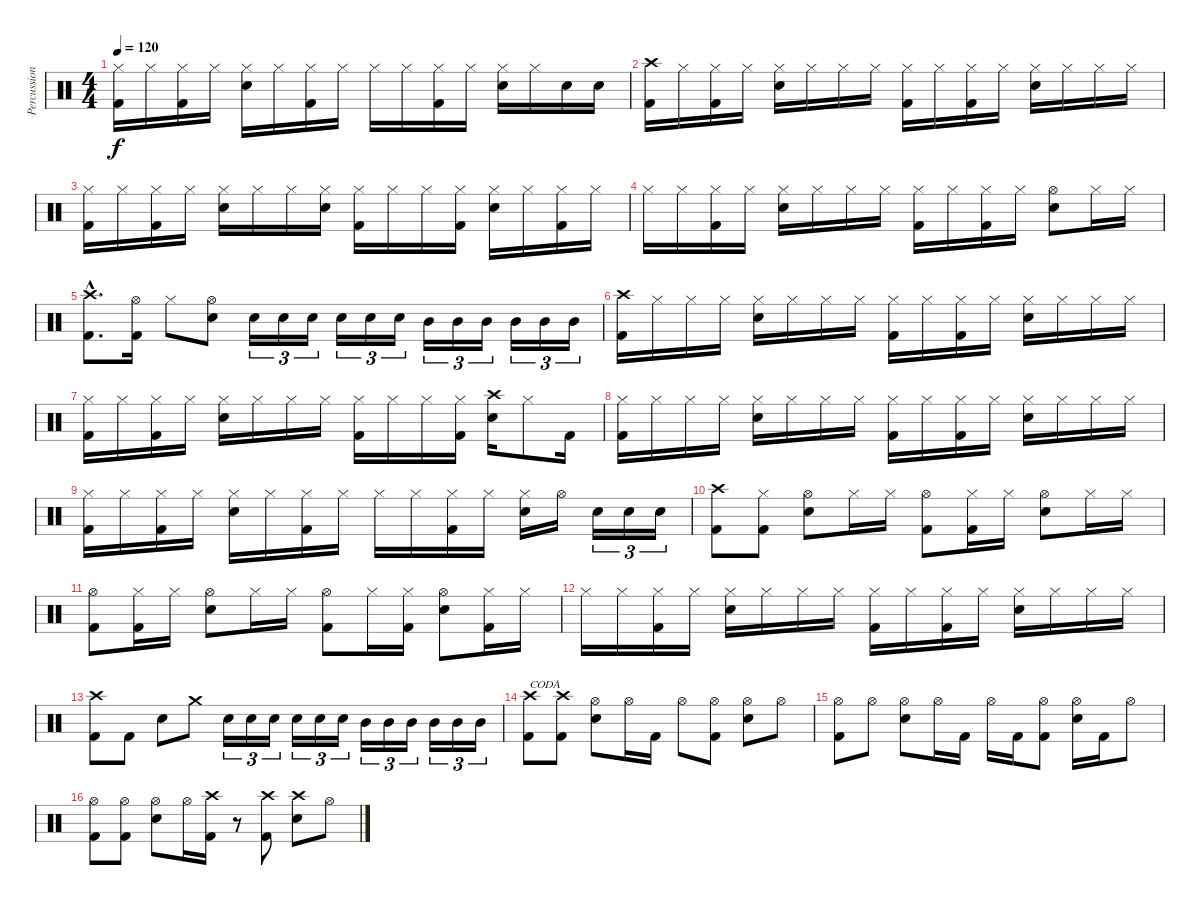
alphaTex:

\track ("Percussions" "Percussion") {instrument percussion}
\staff {score}
\articulation defaults
\ts (4 4)
\tempo 120
\clef neutral
\ks c
("Hi-Hat (closed)" "Kick (hit) 2").16{dy f} "Hi-Hat (closed)".16 ("Hi-Hat (closed)" "Kick (hit) 2").16 "Hi-Hat (closed)".16 ("Hi-Hat (closed)" "Electric Snare (hit)").16 "Hi-Hat (closed)".16 ("Hi-Hat (closed)" "Kick (hit) 2").16 "Hi-Hat (closed)".16 "Hi-Hat (closed)".16 "Hi-Hat (closed)".16 ("Hi-Hat (closed)" "Kick (hit) 2").16 "Hi-Hat (closed)".16 ("Hi-Hat (closed)" "Electric Snare (hit)").16 "Hi-Hat (closed)".16 "Electric Snare (hit)".16 "Electric Snare (hit)".16 |
("Crash high (hit)" "Kick (hit) 2").16 "Hi-Hat (closed)".16 ("Hi-Hat (closed)" "Kick (hit) 2").16 "Hi-Hat (closed)".16 ("Hi-Hat (closed)" "Electric Snare (hit)").16 "Hi-Hat (closed)".16 "Hi-Hat (closed)".16 "Hi-Hat (closed)".16 ("Hi-Hat (closed)" "Kick (hit) 2").16 "Hi-Hat (closed)".16 ("Hi-Hat (closed)" "Kick (hit) 2").16 "Hi-Hat (closed)".16 ("Hi-Hat (closed)" "Electric Snare (hit)").16 "Hi-Hat (closed)".16 "Hi-Hat (closed)".16 "Hi-Hat (closed)".16 |
("Hi-Hat (closed)" "Kick (hit) 2").16 "Hi-Hat (closed)".16 ("Hi-Hat (closed)" "Kick (hit) 2").16 "Hi-Hat (closed)".16 ("Hi-Hat (closed)" "Electric Snare (hit)").16 "Hi-Hat (closed)".16 "Hi-Hat (closed)".16 ("Hi-Hat (closed)" "Electric Snare (hit)").16 ("Hi-Hat (closed)" "Kick (hit) 2").16 "Hi-Hat (closed)".16 "Hi-Hat (closed)".16 ("Hi-Hat (closed)" "Kick (hit) 2").16 ("Hi-Hat (closed)" "Electric Snare (hit)").16 "Hi-Hat (closed)".16 ("Hi-Hat (closed)" "Kick (hit) 2").16 "Hi-Hat (closed)".16 |
"Hi-Hat (closed)".16 "Hi-Hat (closed)".16 ("Hi-Hat (closed)" "Kick (hit) 2").16 "Hi-Hat (closed)".16 ("Hi-Hat (closed)" "Electric Snare (hit)").16 "Hi-Hat (closed)".16 "Hi-Hat (closed)".16 "Hi-Hat (closed)".16 ("Hi-Hat (closed)" "Kick (hit) 2").16 "Hi-Hat (closed)".16 ("Hi-Hat (closed)" "Kick (hit) 2").16 "Hi-Hat (closed)".16 ("Hi-Hat (open)" "Electric Snare (hit)").8 "Hi-Hat (closed)".16 "Hi-Hat (closed)".16 |
("Crash high (hit)"{hac} "Kick (hit) 2"{hac}).8{d} ("Hi-Hat (open)" "Kick (hit) 2").16 "Hi-Hat (closed)".8 ("Hi-Hat (open)" "Electric Snare (hit)").8 "Electric Snare (hit)".16{tu (3 2)} "Electric Snare (hit)".16{tu (3 2)} "Electric Snare (hit)".16{tu (3 2)} "Electric Snare (hit)".16{tu (3 2)} "Electric Snare (hit)".16{tu (3 2)} "Electric Snare (hit)".16{tu (3 2)} "Mid Tom (hit)".16{tu (3 2)} "Mid Tom (hit)".16{tu (3 2)} "Mid Tom (hit)".16{tu (3 2)} "Mid Tom (hit)".16{tu (3 2)} "Mid Tom (hit)".16{tu (3 2)} "Mid Tom (hit)".16{tu (3 2)} |
("Crash high (hit)" "Kick (hit) 2").16 "Hi-Hat (closed)".16 "Hi-Hat (closed)".16 "Hi-Hat (closed)".16 ("Hi-Hat (closed)" "Electric Snare (hit)").16 "Hi-Hat (closed)".16 "Hi-Hat (closed)".16 "Hi-Hat (closed)".16 ("Hi-Hat (closed)" "Kick (hit) 2").16 "Hi-Hat (closed)".16 ("Hi-Hat (closed)" "Kick (hit) 2").16 "Hi-Hat (closed)".16 ("Hi-Hat (closed)" "Electric Snare (hit)").16 "Hi-Hat (closed)".16 "Hi-Hat (closed)".16 "Hi-Hat (closed)".16 |
("Hi-Hat (closed)" "Kick (hit) 2").16 "Hi-Hat (closed)".16 ("Hi-Hat (closed)" "Kick (hit) 2").16 "Hi-Hat (closed)".16 ("Hi-Hat (closed)" "Electric Snare (hit)").16 "Hi-Hat (closed)".16 "Hi-Hat (closed)".16 "Hi-Hat (closed)".16 ("Hi-Hat (closed)" "Kick (hit) 2").16 "Hi-Hat (closed)".16 "Hi-Hat (closed)".16 ("Hi-Hat (closed)" "Kick (hit) 2").16 ("Crash high (hit)" "Electric Snare (hit)").16 "Hi-Hat (closed)".8 "Kick (hit) 2".16 |
("Hi-Hat (closed)" "Kick (hit) 2").16 "Hi-Hat (closed)".16 "Hi-Hat (closed)".16 "Hi-Hat (closed)".16 ("Hi-Hat (closed)" "Electric Snare (hit)").16 "Hi-Hat (closed)".16 "Hi-Hat (closed)".16 "Hi-Hat (closed)".16 ("Hi-Hat (closed)" "Kick (hit) 2").16 "Hi-Hat (closed)".16 ("Hi-Hat (closed)" "Kick (hit) 2").16 "Hi-Hat (closed)".16 ("Hi-Hat (closed)" "Electric Snare (hit)").16 "Hi-Hat (closed)".16 "Hi-Hat (closed)".16 "Hi-Hat (closed)".16 |
("Hi-Hat (closed)" "Kick (hit) 2").16 "Hi-Hat (closed)".16 ("Hi-Hat (closed)" "Kick (hit) 2").16 "Hi-Hat (closed)".16 ("Hi-Hat (closed)" "Electric Snare (hit)").16 "Hi-Hat (closed)".16 ("Hi-Hat (closed)" "Kick (hit) 2").16 "Hi-Hat (closed)".16 "Hi-Hat (closed)".16 "Hi-Hat (closed)".16 ("Hi-Hat (closed)" "Kick (hit) 2").16 "Hi-Hat (closed)".16 ("Hi-Hat (closed)" "Electric Snare (hit)").16 "Hi-Hat (open)".16 "Electric Snare (hit)".16{tu (3 2)} "Electric Snare (hit)".16{tu (3 2)} "Electric Snare (hit)".16{tu (3 2)} |
("Crash high (hit)" "Kick (hit) 2").8 ("Hi-Hat (closed)" "Kick (hit) 2").8 ("Hi-Hat (open)" "Electric Snare (hit)").8 "Hi-Hat (closed)".16 "Hi-Hat (closed)".16 ("Hi-Hat (open)" "Kick (hit) 2").8 ("Hi-Hat (closed)" "Kick (hit) 2").16 "Hi-Hat (closed)".16 ("Hi-Hat (open)" "Electric Snare (hit)").8 "Hi-Hat (closed)".16 "Hi-Hat (closed)".16 |
("Hi-Hat (open)" "Kick (hit) 2").8 ("Hi-Hat (closed)" "Kick (hit) 2").16 "Hi-Hat (closed)".16 ("Hi-Hat (open)" "Electric Snare (hit)").8 "Hi-Hat (closed)".16 "Hi-Hat (closed)".16 ("Hi-Hat (open)" "Kick (hit) 2").8 "Hi-Hat (closed)".16 ("Hi-Hat (closed)" "Kick (hit) 2").16 ("Hi-Hat (open)" "Electric Snare (hit)").8 ("Hi-Hat (closed)" "Kick (hit) 2").16 "Hi-Hat (closed)".16 |
"Hi-Hat (closed)".16 "Hi-Hat (closed)".16 ("Hi-Hat (closed)" "Kick (hit) 2").16 "Hi-Hat (closed)".16 ("Hi-Hat (closed)" "Electric Snare (hit)").16 "Hi-Hat (closed)".16 "Hi-Hat (closed)".16 "Hi-Hat (closed)".16 ("Hi-Hat (closed)" "Kick (hit) 2").16 "Hi-Hat (closed)".16 ("Hi-Hat (closed)" "Kick (hit) 2").16 "Hi-Hat (closed)".16 ("Hi-Hat (closed)" "Electric Snare (hit)").16 "Hi-Hat (closed)".16 "Hi-Hat (closed)".16 "Hi-Hat (closed)".16 |
("Crash high (hit)" "Kick (hit) 2").8 "Kick (hit) 2".8 "Electric Snare (hit)".8 "Crash medium (hit)".8 "Electric Snare (hit)".16{tu (3 2)} "Electric Snare (hit)".16{tu (3 2)} "Electric Snare (hit)".16{tu (3 2)} "Electric Snare (hit)".16{tu (3 2)} "Electric Snare (hit)".16{tu (3 2)} "Electric Snare (hit)".16{tu (3 2)} "Mid Tom (hit)".16{tu (3 2)} "Mid Tom (hit)".16{tu (3 2)} "Mid Tom (hit)".16{tu (3 2)} "Mid Tom (hit)".16{tu (3 2)} "Mid Tom (hit)".16{tu (3 2)} "Mid Tom (hit)".16{tu (3 2)} |
("Crash high (hit)" "Kick (hit) 2").8{txt "CODA"} ("Crash high (hit)" "Kick (hit) 2").8 ("Hi-Hat (open)" "Electric Snare (hit)").8 "Hi-Hat (open)".16 "Kick (hit) 2".16 "Hi-Hat (open)".8 ("Hi-Hat (open)" "Kick (hit) 2").8 ("Hi-Hat (open)" "Electric Snare (hit)").8 "Hi-Hat (open)".8 |
("Hi-Hat (open)" "Kick (hit) 2").8 "Hi-Hat (open)".8 ("Hi-Hat (open)" "Electric Snare (hit)").8 "Hi-Hat (open)".16 "Kick (hit) 2".16 "Hi-Hat (open)".16 "Kick (hit) 2".16 ("Hi-Hat (open)" "Kick (hit) 2").8 ("Hi-Hat (open)" "Electric Snare (hit)").16 "Kick (hit) 2".16 "Hi-Hat (open)".8 |
("Hi-Hat (open)" "Kick (hit) 2").8 ("Hi-Hat (open)" "Kick (hit) 2").8 ("Hi-Hat (open)" "Electric Snare (hit)").8 "Hi-Hat (open)".16 ("Crash high (hit)" "Kick (hit) 2").16 r.8 ("Crash high (hit)" "Kick (hit) 2").8 ("Crash high (hit)" "Electric Snare (hit)").8 "Hi-Hat (open)".8
